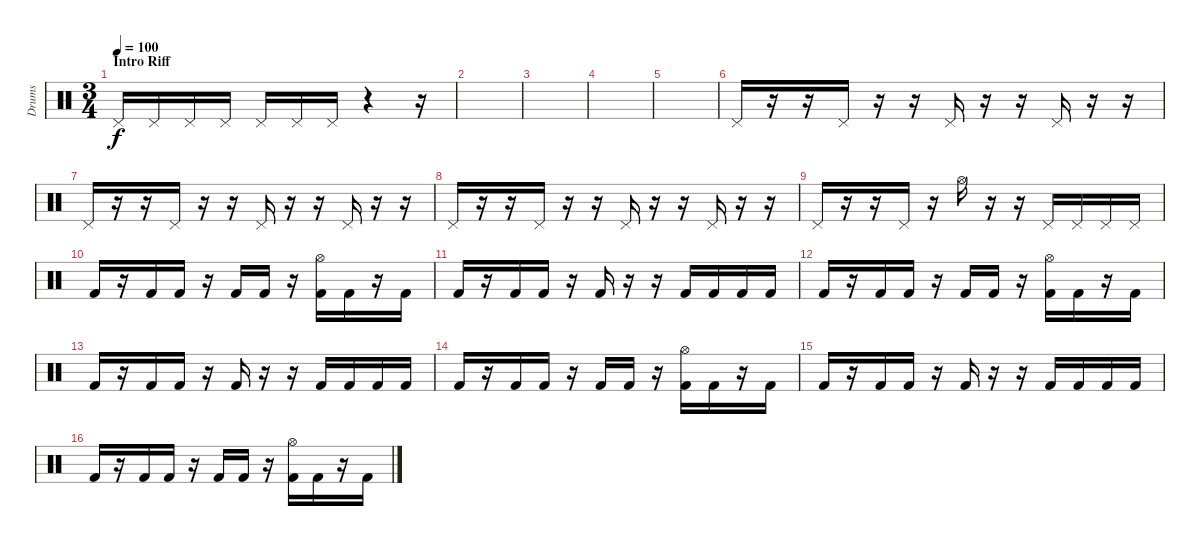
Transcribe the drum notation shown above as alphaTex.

\track ("Drums" "Drums") {instrument percussion}
\staff {score}
\articulation defaults
\ts (3 4)
\section ("" "Intro Riff")
\tempo 100
\clef neutral
\ks c "Pedal Hi-Hat (hit)".16{dy f} "Pedal Hi-Hat (hit)".16 "Pedal Hi-Hat (hit)".16 "Pedal Hi-Hat (hit)".16 "Pedal Hi-Hat (hit)".16 "Pedal Hi-Hat (hit)".16 "Pedal Hi-Hat (hit)".16
r.4 r.16 |
|
|
|
|
"Pedal Hi-Hat (hit)".16 r.16 r.16 "Pedal Hi-Hat (hit)".16 r.16 r.16 "Pedal Hi-Hat (hit)".16 r.16 r.16 "Pedal Hi-Hat (hit)".16 r.16 r.16 |
"Pedal Hi-Hat (hit)".16 r.16 r.16 "Pedal Hi-Hat (hit)".16 r.16 r.16 "Pedal Hi-Hat (hit)".16 r.16 r.16 "Pedal Hi-Hat (hit)".16 r.16 r.16 |
"Pedal Hi-Hat (hit)".16 r.16 r.16 "Pedal Hi-Hat (hit)".16 r.16 r.16 "Pedal Hi-Hat (hit)".16 r.16 r.16 "Pedal Hi-Hat (hit)".16 r.16 r.16 |
"Pedal Hi-Hat (hit)".16 r.16 r.16 "Pedal Hi-Hat (hit)".16 r.16 "Hi-Hat (open)".16 r.16 r.16 "Pedal Hi-Hat (hit)".16 "Pedal Hi-Hat (hit)".16 "Pedal Hi-Hat (hit)".16 "Pedal Hi-Hat (hit)".16 |
"Kick (hit) 2".16 r.16 "Kick (hit) 2".16 "Kick (hit) 2".16 r.16 "Kick (hit) 2".16 "Kick (hit) 2".16 r.16 ("Hi-Hat (open)" "Kick (hit) 2").16 "Kick (hit) 2".16 r.16 "Kick (hit) 2".16 |
"Kick (hit) 2".16 r.16 "Kick (hit) 2".16 "Kick (hit) 2".16 r.16 "Kick (hit) 2".16 r.16 r.16 "Kick (hit) 2".16 "Kick (hit) 2".16 "Kick (hit) 2".16 "Kick (hit) 2".16 |
"Kick (hit) 2".16 r.16 "Kick (hit) 2".16 "Kick (hit) 2".16 r.16 "Kick (hit) 2".16 "Kick (hit) 2".16 r.16 ("Hi-Hat (open)" "Kick (hit) 2").16 "Kick (hit) 2".16 r.16 "Kick (hit) 2".16 |
"Kick (hit) 2".16 r.16 "Kick (hit) 2".16 "Kick (hit) 2".16 r.16 "Kick (hit) 2".16 r.16 r.16 "Kick (hit) 2".16 "Kick (hit) 2".16 "Kick (hit) 2".16 "Kick (hit) 2".16 |
"Kick (hit) 2".16 r.16 "Kick (hit) 2".16 "Kick (hit) 2".16 r.16 "Kick (hit) 2".16 "Kick (hit) 2".16 r.16 ("Hi-Hat (open)" "Kick (hit) 2").16 "Kick (hit) 2".16 r.16 "Kick (hit) 2".16 |
"Kick (hit) 2".16 r.16 "Kick (hit) 2".16 "Kick (hit) 2".16 r.16 "Kick (hit) 2".16 r.16 r.16 "Kick (hit) 2".16 "Kick (hit) 2".16 "Kick (hit) 2".16 "Kick (hit) 2".16 |
"Kick (hit) 2".16 r.16 "Kick (hit) 2".16 "Kick (hit) 2".16 r.16 "Kick (hit) 2".16 "Kick (hit) 2".16 r.16 ("Hi-Hat (open)" "Kick (hit) 2").16 "Kick (hit) 2".16 r.16 "Kick (hit) 2".16
